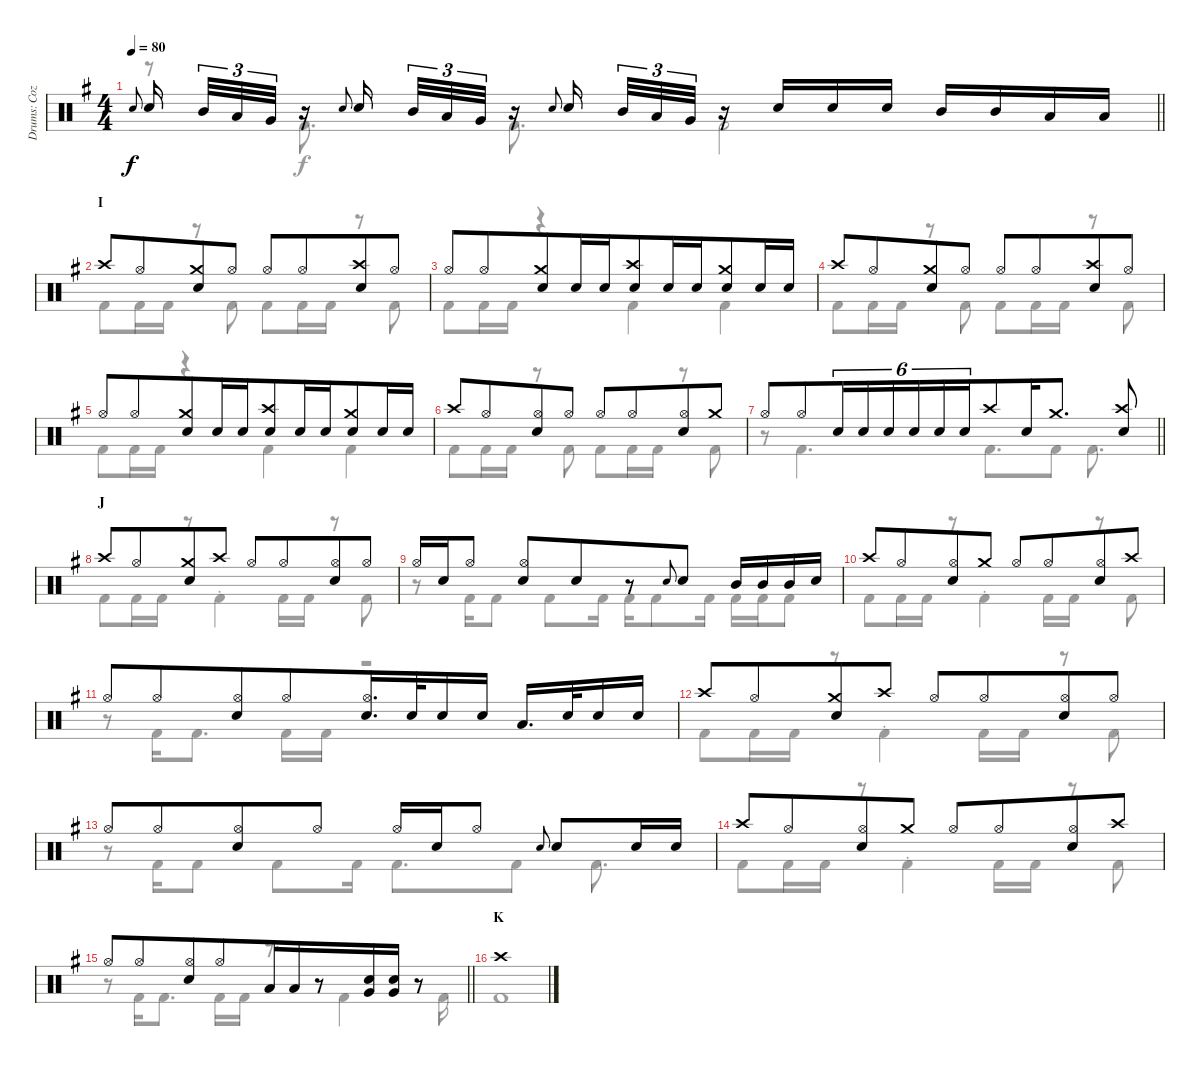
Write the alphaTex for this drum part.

\track ("Drums: Cozy" "Drums: Coz") {instrument percussion}
\staff {score}
\articulation defaults
\voice
\ts (4 4)
\tempo 80
\clef neutral
\barLineRight lightlight
\ks g "Electric Snare (hit)".8{gr onbeat dy f} "Snare (hit) 2".16{beam splitsecondary} "Mid Tom (hit)".32{tu (3 2)} "Low Tom (hit)".32{tu (3 2)} "Very Low Tom (hit)".32{tu (3 2)}
r.16 "Electric Snare (hit)".8{gr onbeat} "Snare (hit) 2".16 "Mid Tom (hit)".32{tu (3 2)} "Low Tom (hit)".32{tu (3 2)} "Very Low Tom (hit)".32{tu (3 2)} r.16 "Electric Snare (hit)".8{gr onbeat} "Snare (hit) 2".16{beam splitsecondary} "Mid Tom (hit)".32{tu (3 2)} "Low Tom (hit)".32{tu (3 2)} "Very Low Tom (hit)".32{tu (3 2)} r.16 "Electric Snare (hit)".16 "Electric Snare (hit)".16 "Electric Snare (hit)".16 "Mid Tom (hit)".16 "Mid Tom (hit)".16 "Low Tom (hit)".16 "Low Tom (hit)".16 |
\section ("" "I")
"Crash high (hit)".8 "Hi-Hat (open)".8{beam merge} ("Crash medium (hit)" "Snare (hit) 2").8 "Hi-Hat (open)".8 "Hi-Hat (open)".8 "Hi-Hat (open)".8{beam merge} ("Crash high (hit)" "Snare (hit) 2").8 "Hi-Hat (open)".8 |
"Hi-Hat (open)".8 "Hi-Hat (open)".8{beam merge} ("Crash medium (hit)" "Snare (hit) 2").8 "Electric Snare (hit)".16 "Electric Snare (hit)".16{beam merge} ("Crash high (hit)" "Snare (hit) 2").8 "Electric Snare (hit)".16 "Electric Snare (hit)".16{beam merge} ("Crash medium (hit)" "Snare (hit) 2").8 "Electric Snare (hit)".16 "Electric Snare (hit)".16 |
"Crash high (hit)".8 "Hi-Hat (open)".8{beam merge} ("Crash medium (hit)" "Snare (hit) 2").8 "Hi-Hat (open)".8 "Hi-Hat (open)".8 "Hi-Hat (open)".8{beam merge} ("Crash high (hit)" "Snare (hit) 2").8 "Hi-Hat (open)".8 |
"Hi-Hat (open)".8 "Hi-Hat (open)".8{beam merge} ("Crash medium (hit)" "Snare (hit) 2").8 "Electric Snare (hit)".16 "Electric Snare (hit)".16{beam merge} ("Crash high (hit)" "Snare (hit) 2").8 "Electric Snare (hit)".16 "Electric Snare (hit)".16{beam merge} ("Crash medium (hit)" "Snare (hit) 2").8 "Electric Snare (hit)".16 "Electric Snare (hit)".16 |
"Crash high (hit)".8 "Hi-Hat (open)".8{beam merge} ("Hi-Hat (open)" "Snare (hit) 2").8 "Hi-Hat (open)".8 "Hi-Hat (open)".8 "Hi-Hat (open)".8{beam merge} ("Hi-Hat (open)" "Snare (hit) 2").8 "Crash medium (hit)".8 |
\barLineRight lightlight "Hi-Hat (open)".8 "Hi-Hat (open)".8{beam merge} "Snare (hit) 2".16{tu (6 4)} "Electric Snare (hit)".16{tu (6 4)} "Electric Snare (hit)".16{tu (6 4) beam merge} "Snare (hit) 2".16{tu (6 4)} "Electric Snare (hit)".16{tu (6 4)} "Electric Snare (hit)".16{tu (6 4) beam merge} "Crash high (hit)".8 "Electric Snare (hit)".16 "Crash medium (hit)".8{d}
("Crash high (hit)" "Snare (hit) 2").8 |
\section ("" "J")
"Crash high (hit)".8 "Hi-Hat (open)".8{beam merge} ("Crash medium (hit)" "Snare (hit) 2").8 "Crash high (hit)".8 "Hi-Hat (open)".8 "Hi-Hat (open)".8{beam merge} ("Hi-Hat (open)" "Snare (hit) 2").8 "Hi-Hat (open)".8 |
"Hi-Hat (open)".16 "Electric Snare (hit)".16{beam merge} "Hi-Hat (open)".8 ("Hi-Hat (open)" "Electric Snare (hit)").8 "Electric Snare (hit)".8{beam merge} r.8 "Electric Snare (hit)".8{gr onbeat} "Snare (hit) 2".8 "Mid Tom (hit)".16{beam merge} "Mid Tom (hit)".16 "Mid Tom (hit)".16 "Electric Snare (hit)".16 |
"Crash high (hit)".8 "Hi-Hat (open)".8{beam merge} ("Hi-Hat (open)" "Snare (hit) 2").8 "Crash medium (hit)".8 "Hi-Hat (open)".8 "Hi-Hat (open)".8{beam merge} ("Hi-Hat (open)" "Snare (hit) 2").8 "Crash high (hit)".8 |
"Hi-Hat (open)".8 "Hi-Hat (open)".8{beam merge} ("Hi-Hat (open)" "Snare (hit) 2").8 "Hi-Hat (open)".8{beam merge} ("Hi-Hat (open)" "Electric Snare (hit)").16{d} "Electric Snare (hit)".32{beam merge} "Electric Snare (hit)".16{beam merge} "Electric Snare (hit)".16 "Low Tom (hit)".16{d} "Electric Snare (hit)".32 "Electric Snare (hit)".16 "Electric Snare (hit)".16 |
"Crash high (hit)".8 "Hi-Hat (open)".8{beam merge} ("Crash medium (hit)" "Snare (hit) 2").8 "Crash high (hit)".8 "Hi-Hat (open)".8 "Hi-Hat (open)".8{beam merge} ("Hi-Hat (open)" "Snare (hit) 2").8 "Hi-Hat (open)".8 |
"Hi-Hat (open)".8 "Hi-Hat (open)".8{beam merge} ("Hi-Hat (open)" "Electric Snare (hit)").8 "Hi-Hat (open)".8 "Hi-Hat (open)".16{beam merge} "Electric Snare (hit)".16 "Hi-Hat (open)".8 "Electric Snare (hit)".8{gr onbeat} "Snare (hit) 2".8 "Electric Snare (hit)".16 "Electric Snare (hit)".16 |
"Crash high (hit)".8 "Hi-Hat (open)".8{beam merge} ("Hi-Hat (open)" "Snare (hit) 2").8 "Crash medium (hit)".8 "Hi-Hat (open)".8 "Hi-Hat (open)".8{beam merge} ("Hi-Hat (open)" "Snare (hit) 2").8 "Crash high (hit)".8 |
\barLineRight lightlight "Hi-Hat (open)".8 "Hi-Hat (open)".8{beam merge}
("Hi-Hat (open)" "Snare (hit) 2").8 "Hi-Hat (open)".8{beam merge} "Low Tom (hit)".16 "Low Tom (hit)".16{beam merge} r.8{beam merge} ("Electric Snare (hit)" "Very Low Tom (hit)").16 ("Electric Snare (hit)" "Very Low Tom (hit)").16 r.8 |
\section ("" "K")
"Crash high (hit)".1{volume 0}
\voice
\clef neutral
\ottava regular
\simile none
\barLineRight lightlight
\ks g
r.8{dy f} "Kick (hit) 2".8{d} "Kick (hit) 2".8{d} "Kick (hit) 2".2 |
"Kick (hit) 2".8 "Kick (hit) 2".16 "Kick (hit) 2".16 r.8 "Kick (hit) 2".8 "Kick (hit) 2".8 "Kick (hit) 2".16 "Kick (hit) 2".16 r.8 "Kick (hit) 2".8 |
"Kick (hit) 2".8 "Kick (hit) 2".16 "Kick (hit) 2".16 r.4 "Kick (hit) 2".4 "Kick (hit) 2".4 |
"Kick (hit) 2".8 "Kick (hit) 2".16 "Kick (hit) 2".16 r.8 "Kick (hit) 2".8 "Kick (hit) 2".8 "Kick (hit) 2".16 "Kick (hit) 2".16 r.8 "Kick (hit) 2".8 |
"Kick (hit) 2".8 "Kick (hit) 2".16 "Kick (hit) 2".16 r.4 "Kick (hit) 2".4 "Kick (hit) 2".4 |
"Kick (hit) 2".8 "Kick (hit) 2".16 "Kick (hit) 2".16 r.8 "Kick (hit) 2".8 "Kick (hit) 2".8 "Kick (hit) 2".16 "Kick (hit) 2".16 r.8 "Kick (hit) 2".8 |
\barLineRight lightlight
r.8 "Kick (hit) 2".4{d} "Kick (hit) 2".8{d} "Kick (hit) 2".8 "Kick (hit) 2".8{d} |
"Kick (hit) 2".8 "Kick (hit) 2".16 "Kick (hit) 2".16 r.8 "Kick (hit) 2"{st}.4 "Kick (hit) 2".16 "Kick (hit) 2".16 r.8 "Kick (hit) 2".8 |
r.8 "Kick (hit) 2".16 "Kick (hit) 2".8 "Kick (hit) 2".8 "Kick (hit) 2".16 "Kick (hit) 2".16 "Kick (hit) 2".8 "Kick (hit) 2".16 "Kick (hit) 2".16 "Kick (hit) 2".16 "Kick (hit) 2".8 |
"Kick (hit) 2".8 "Kick (hit) 2".16 "Kick (hit) 2".16 r.8 "Kick (hit) 2"{st}.4 "Kick (hit) 2".16 "Kick (hit) 2".16 r.8 "Kick (hit) 2".8 |
r.8 "Kick (hit) 2".16 "Kick (hit) 2".8{d} "Kick (hit) 2".16 "Kick (hit) 2".16 r.2 |
"Kick (hit) 2".8 "Kick (hit) 2".16 "Kick (hit) 2".16 r.8 "Kick (hit) 2"{st}.4 "Kick (hit) 2".16 "Kick (hit) 2".16 r.8 "Kick (hit) 2".8 |
r.8 "Kick (hit) 2".16 "Kick (hit) 2".8 "Kick (hit) 2".8 "Kick (hit) 2".16 "Kick (hit) 2".8{d} "Kick (hit) 2".8 "Kick (hit) 2".8{d} |
"Kick (hit) 2".8 "Kick (hit) 2".16 "Kick (hit) 2".16 r.8 "Kick (hit) 2"{st}.4 "Kick (hit) 2".16 "Kick (hit) 2".16 r.8 "Kick (hit) 2".8 |
\barLineRight lightlight
r.8 "Kick (hit) 2".16 "Kick (hit) 2".8{d} "Kick (hit) 2".16 "Kick (hit) 2".16 r.8{d} "Kick (hit) 2".4 "Kick (hit) 2".16 |
"Kick (hit) 2".1
